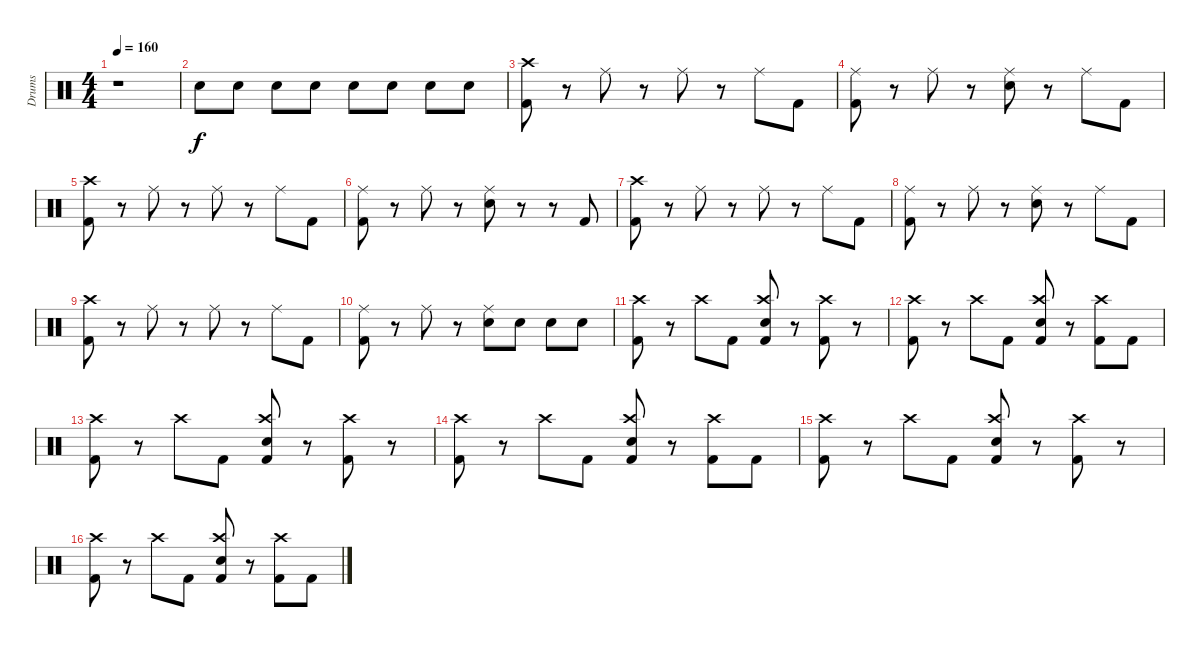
\track ("Drums" "Drums") {instrument percussion}
\staff {score}
\articulation defaults
\ts (4 4)
\tempo 160
\clef neutral
\ks c
r.1{dy f} |
"Electric Snare (hit)".8{volume 10} "Electric Snare (hit)".8 "Electric Snare (hit)".8 "Electric Snare (hit)".8 "Electric Snare (hit)".8 "Electric Snare (hit)".8 "Electric Snare (hit)".8 "Electric Snare (hit)".8 |
("Crash high (hit)" "Kick (hit) 2").8 r.8 "Ride (middle)".8 r.8 "Ride (middle)".8 r.8 "Ride (middle)".8 "Kick (hit) 2".8 |
("Ride (middle)" "Kick (hit) 2").8 r.8 "Ride (middle)".8 r.8 ("Ride (middle)" "Electric Snare (hit)").8 r.8 "Ride (middle)".8 "Kick (hit) 2".8 |
("Crash high (hit)" "Kick (hit) 2").8 r.8 "Ride (middle)".8 r.8 "Ride (middle)".8 r.8 "Ride (middle)".8 "Kick (hit) 2".8 |
("Ride (middle)" "Kick (hit) 2").8 r.8 "Ride (middle)".8 r.8 ("Ride (middle)" "Electric Snare (hit)").8 r.8 r.8 "Kick (hit) 2".8 |
("Crash high (hit)" "Kick (hit) 2").8 r.8 "Ride (middle)".8 r.8 "Ride (middle)".8 r.8 "Ride (middle)".8 "Kick (hit) 2".8 |
("Ride (middle)" "Kick (hit) 2").8 r.8 "Ride (middle)".8 r.8 ("Ride (middle)" "Electric Snare (hit)").8 r.8 "Ride (middle)".8 "Kick (hit) 2".8 |
("Crash high (hit)" "Kick (hit) 2").8 r.8 "Ride (middle)".8 r.8 "Ride (middle)".8 r.8 "Ride (middle)".8 "Kick (hit) 2".8 |
("Ride (middle)" "Kick (hit) 2").8 r.8 "Ride (middle)".8 r.8 ("Ride (middle)" "Electric Snare (hit)").8 "Electric Snare (hit)".8 "Electric Snare (hit)".8 "Electric Snare (hit)".8 |
("Crash high (hit)" "Kick (hit) 2").8 r.8 "Crash high (hit)".8 "Kick (hit) 2".8 ("Crash high (hit)" "Electric Snare (hit)" "Kick (hit) 2").8 r.8 ("Crash high (hit)" "Kick (hit) 2").8 r.8 |
("Crash high (hit)" "Kick (hit) 2").8 r.8 "Crash high (hit)".8 "Kick (hit) 2".8 ("Crash high (hit)" "Electric Snare (hit)" "Kick (hit) 2").8 r.8 ("Crash high (hit)" "Kick (hit) 2").8 "Kick (hit) 2".8 |
("Crash high (hit)" "Kick (hit) 2").8 r.8 "Crash high (hit)".8 "Kick (hit) 2".8 ("Crash high (hit)" "Electric Snare (hit)" "Kick (hit) 2").8 r.8 ("Crash high (hit)" "Kick (hit) 2").8 r.8 |
("Crash high (hit)" "Kick (hit) 2").8 r.8 "Crash high (hit)".8 "Kick (hit) 2".8 ("Crash high (hit)" "Electric Snare (hit)" "Kick (hit) 2").8 r.8 ("Crash high (hit)" "Kick (hit) 2").8 "Kick (hit) 2".8 |
("Crash high (hit)" "Kick (hit) 2").8 r.8 "Crash high (hit)".8 "Kick (hit) 2".8 ("Crash high (hit)" "Electric Snare (hit)" "Kick (hit) 2").8 r.8 ("Crash high (hit)" "Kick (hit) 2").8 r.8 |
("Crash high (hit)" "Kick (hit) 2").8 r.8 "Crash high (hit)".8 "Kick (hit) 2".8 ("Crash high (hit)" "Electric Snare (hit)" "Kick (hit) 2").8 r.8 ("Crash high (hit)" "Kick (hit) 2").8 "Kick (hit) 2".8
